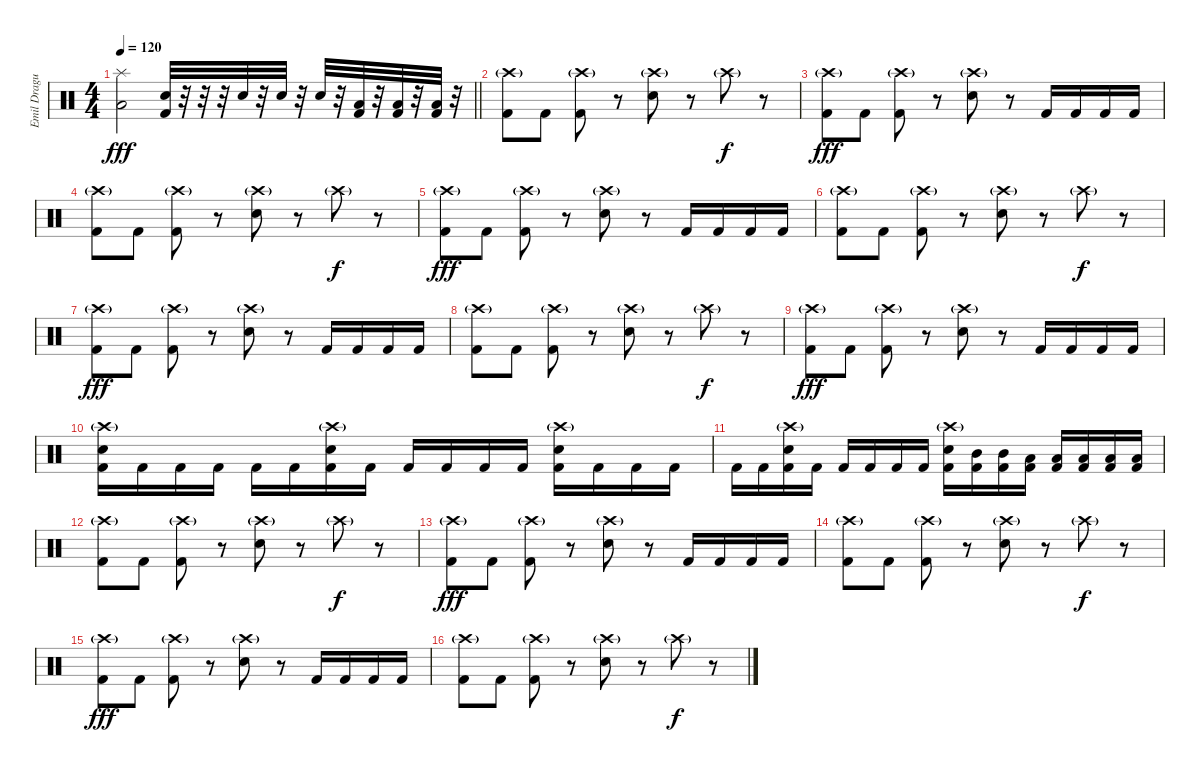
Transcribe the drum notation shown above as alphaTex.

\track ("Emil Dragutinovic" "Emil Dragu") {instrument percussion}
\staff {score}
\articulation defaults
\ts (4 4)
\tempo 120
\clef neutral
\barLineRight lightlight
\ks c
("Splash (hit)" "Low Floor Tom (hit)").2{dy fff} ("Electric Snare (hit)" "Kick (hit) 2").32 r.32 r.32 r.32 "Electric Snare (hit)".32 r.32 "Electric Snare (hit)".32 r.32 "Electric Snare (hit)".32 r.32 ("Low Tom (hit)" "Kick (hit) 2").32 r.32 ("Low Tom (hit)" "Kick (hit) 2").32 r.32 ("Low Floor Tom (hit)" "Kick (hit) 2").32 r.32 |
("Crash high (hit)"{g} "Kick (hit) 2").8 "Kick (hit) 2".8 ("Crash high (hit)"{g} "Kick (hit) 2").8 r.8 ("Crash high (hit)"{g} "Electric Snare (hit)").8 r.8 "Crash high (hit)"{g}.8{dy f} r.8 |
("Crash high (hit)"{g} "Kick (hit) 2").8{dy fff} "Kick (hit) 2".8 ("Crash high (hit)"{g} "Kick (hit) 2").8 r.8 ("Crash high (hit)"{g} "Electric Snare (hit)").8 r.8 "Kick (hit) 2".16 "Kick (hit) 2".16 "Kick (hit) 2".16 "Kick (hit) 2".16 |
("Crash high (hit)"{g} "Kick (hit) 2").8 "Kick (hit) 2".8 ("Crash high (hit)"{g} "Kick (hit) 2").8 r.8 ("Crash high (hit)"{g} "Electric Snare (hit)").8 r.8 "Crash high (hit)"{g}.8{dy f} r.8 |
("Crash high (hit)"{g} "Kick (hit) 2").8{dy fff} "Kick (hit) 2".8 ("Crash high (hit)"{g} "Kick (hit) 2").8 r.8 ("Crash high (hit)"{g} "Electric Snare (hit)").8 r.8 "Kick (hit) 2".16 "Kick (hit) 2".16 "Kick (hit) 2".16 "Kick (hit) 2".16 |
("Crash high (hit)"{g} "Kick (hit) 2").8 "Kick (hit) 2".8 ("Crash high (hit)"{g} "Kick (hit) 2").8 r.8 ("Crash high (hit)"{g} "Electric Snare (hit)").8 r.8 "Crash high (hit)"{g}.8{dy f} r.8 |
("Crash high (hit)"{g} "Kick (hit) 2").8{dy fff} "Kick (hit) 2".8 ("Crash high (hit)"{g} "Kick (hit) 2").8 r.8 ("Crash high (hit)"{g} "Electric Snare (hit)").8 r.8 "Kick (hit) 2".16 "Kick (hit) 2".16 "Kick (hit) 2".16 "Kick (hit) 2".16 |
("Crash high (hit)"{g} "Kick (hit) 2").8 "Kick (hit) 2".8 ("Crash high (hit)"{g} "Kick (hit) 2").8 r.8 ("Crash high (hit)"{g} "Electric Snare (hit)").8 r.8 "Crash high (hit)"{g}.8{dy f} r.8 |
("Crash high (hit)"{g} "Kick (hit) 2").8{dy fff} "Kick (hit) 2".8 ("Crash high (hit)"{g} "Kick (hit) 2").8 r.8 ("Crash high (hit)"{g} "Electric Snare (hit)").8 r.8 "Kick (hit) 2".16 "Kick (hit) 2".16 "Kick (hit) 2".16 "Kick (hit) 2".16 |
("Crash high (hit)"{g} "Electric Snare (hit)" "Kick (hit) 2").16 "Kick (hit) 2".16 "Kick (hit) 2".16 "Kick (hit) 2".16 "Kick (hit) 2".16 "Kick (hit) 2".16 ("Crash high (hit)"{g} "Electric Snare (hit)" "Kick (hit) 2").16 "Kick (hit) 2".16 "Kick (hit) 2".16 "Kick (hit) 2".16 "Kick (hit) 2".16 "Kick (hit) 2".16 ("Crash high (hit)"{g} "Electric Snare (hit)" "Kick (hit) 2").16 "Kick (hit) 2".16 "Kick (hit) 2".16 "Kick (hit) 2".16 |
"Kick (hit) 2".16 "Kick (hit) 2".16 ("Crash high (hit)"{g} "Electric Snare (hit)" "Kick (hit) 2").16 "Kick (hit) 2".16 "Kick (hit) 2".16 "Kick (hit) 2".16 "Kick (hit) 2".16 "Kick (hit) 2".16 ("Crash high (hit)"{g} "Electric Snare (hit)" "Kick (hit) 2").16 ("Mid Tom (hit)" "Kick (hit) 2").16 ("Mid Tom (hit)" "Kick (hit) 2").16 ("Low Tom (hit)" "Kick (hit) 2").16 ("Low Tom (hit)" "Kick (hit) 2").16 ("Low Floor Tom (hit)" "Kick (hit) 2").16 ("Low Floor Tom (hit)" "Kick (hit) 2").16 ("Low Floor Tom (hit)" "Kick (hit) 2").16 |
("Crash high (hit)"{g} "Kick (hit) 2").8 "Kick (hit) 2".8 ("Crash high (hit)"{g} "Kick (hit) 2").8 r.8 ("Crash high (hit)"{g} "Electric Snare (hit)").8 r.8 "Crash high (hit)"{g}.8{dy f} r.8 |
("Crash high (hit)"{g} "Kick (hit) 2").8{dy fff} "Kick (hit) 2".8 ("Crash high (hit)"{g} "Kick (hit) 2").8 r.8 ("Crash high (hit)"{g} "Electric Snare (hit)").8 r.8 "Kick (hit) 2".16 "Kick (hit) 2".16 "Kick (hit) 2".16 "Kick (hit) 2".16 |
("Crash high (hit)"{g} "Kick (hit) 2").8 "Kick (hit) 2".8 ("Crash high (hit)"{g} "Kick (hit) 2").8 r.8 ("Crash high (hit)"{g} "Electric Snare (hit)").8 r.8 "Crash high (hit)"{g}.8{dy f} r.8 |
("Crash high (hit)"{g} "Kick (hit) 2").8{dy fff} "Kick (hit) 2".8 ("Crash high (hit)"{g} "Kick (hit) 2").8 r.8 ("Crash high (hit)"{g} "Electric Snare (hit)").8 r.8 "Kick (hit) 2".16 "Kick (hit) 2".16 "Kick (hit) 2".16 "Kick (hit) 2".16 |
("Crash high (hit)"{g} "Kick (hit) 2").8 "Kick (hit) 2".8 ("Crash high (hit)"{g} "Kick (hit) 2").8 r.8 ("Crash high (hit)"{g} "Electric Snare (hit)").8 r.8 "Crash high (hit)"{g}.8{dy f} r.8
